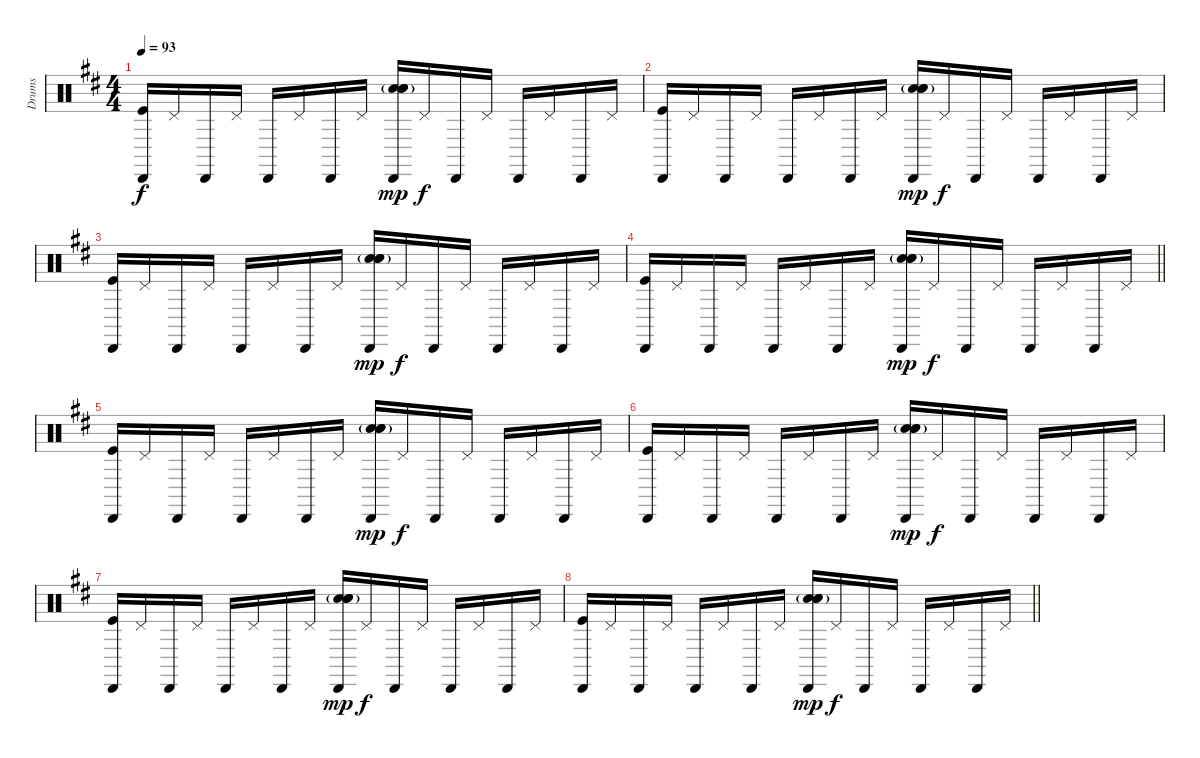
\track ("Drums" "Drums") {instrument percussion}
\staff {score}
\articulation defaults
\ts (4 4)
\tempo 93
\clef neutral
\ks d
("Cabasa (hit)" "Kick (hit)").16{dy f} "Pedal Hi-Hat (hit)".16 "Cabasa (hit)".16 "Pedal Hi-Hat (hit)".16 "Cabasa (hit)".16 "Pedal Hi-Hat (hit)".16 "Cabasa (hit)".16 "Pedal Hi-Hat (hit)".16 ("Cabasa (hit)" "Snare (hit) 2"{g} "Electric Snare (hit)"{g} "Electric Snare (hit)").16{dy mp} "Pedal Hi-Hat (hit)".16{dy f} "Cabasa (hit)".16 "Pedal Hi-Hat (hit)".16 "Cabasa (hit)".16 "Pedal Hi-Hat (hit)".16 "Cabasa (hit)".16 "Pedal Hi-Hat (hit)".16 |
("Cabasa (hit)" "Kick (hit)").16 "Pedal Hi-Hat (hit)".16 "Cabasa (hit)".16 "Pedal Hi-Hat (hit)".16 "Cabasa (hit)".16 "Pedal Hi-Hat (hit)".16 "Cabasa (hit)".16 "Pedal Hi-Hat (hit)".16 ("Cabasa (hit)" "Snare (hit) 2"{g} "Electric Snare (hit)"{g} "Electric Snare (hit)").16{dy mp} "Pedal Hi-Hat (hit)".16{dy f} "Cabasa (hit)".16 "Pedal Hi-Hat (hit)".16 "Cabasa (hit)".16 "Pedal Hi-Hat (hit)".16 "Cabasa (hit)".16 "Pedal Hi-Hat (hit)".16 |
("Cabasa (hit)" "Kick (hit)").16 "Pedal Hi-Hat (hit)".16 "Cabasa (hit)".16 "Pedal Hi-Hat (hit)".16 "Cabasa (hit)".16 "Pedal Hi-Hat (hit)".16 "Cabasa (hit)".16 "Pedal Hi-Hat (hit)".16 ("Cabasa (hit)" "Snare (hit) 2"{g} "Electric Snare (hit)"{g} "Electric Snare (hit)").16{dy mp} "Pedal Hi-Hat (hit)".16{dy f} "Cabasa (hit)".16 "Pedal Hi-Hat (hit)".16 "Cabasa (hit)".16 "Pedal Hi-Hat (hit)".16 "Cabasa (hit)".16 "Pedal Hi-Hat (hit)".16 |
\barLineRight lightlight
("Cabasa (hit)" "Kick (hit)").16 "Pedal Hi-Hat (hit)".16 "Cabasa (hit)".16 "Pedal Hi-Hat (hit)".16 "Cabasa (hit)".16 "Pedal Hi-Hat (hit)".16 "Cabasa (hit)".16 "Pedal Hi-Hat (hit)".16 ("Cabasa (hit)" "Snare (hit) 2"{g} "Electric Snare (hit)"{g} "Electric Snare (hit)").16{dy mp} "Pedal Hi-Hat (hit)".16{dy f} "Cabasa (hit)".16 "Pedal Hi-Hat (hit)".16 "Cabasa (hit)".16 "Pedal Hi-Hat (hit)".16 "Cabasa (hit)".16 "Pedal Hi-Hat (hit)".16 |
("Cabasa (hit)" "Kick (hit)").16 "Pedal Hi-Hat (hit)".16 "Cabasa (hit)".16 "Pedal Hi-Hat (hit)".16 "Cabasa (hit)".16 "Pedal Hi-Hat (hit)".16 "Cabasa (hit)".16 "Pedal Hi-Hat (hit)".16 ("Cabasa (hit)" "Snare (hit) 2"{g} "Electric Snare (hit)"{g} "Electric Snare (hit)").16{dy mp} "Pedal Hi-Hat (hit)".16{dy f} "Cabasa (hit)".16 "Pedal Hi-Hat (hit)".16 "Cabasa (hit)".16 "Pedal Hi-Hat (hit)".16 "Cabasa (hit)".16 "Pedal Hi-Hat (hit)".16 |
("Cabasa (hit)" "Kick (hit)").16 "Pedal Hi-Hat (hit)".16 "Cabasa (hit)".16 "Pedal Hi-Hat (hit)".16 "Cabasa (hit)".16 "Pedal Hi-Hat (hit)".16 "Cabasa (hit)".16 "Pedal Hi-Hat (hit)".16 ("Cabasa (hit)" "Snare (hit) 2"{g} "Electric Snare (hit)"{g} "Electric Snare (hit)").16{dy mp} "Pedal Hi-Hat (hit)".16{dy f} "Cabasa (hit)".16 "Pedal Hi-Hat (hit)".16 "Cabasa (hit)".16 "Pedal Hi-Hat (hit)".16 "Cabasa (hit)".16 "Pedal Hi-Hat (hit)".16 |
("Cabasa (hit)" "Kick (hit)").16 "Pedal Hi-Hat (hit)".16 "Cabasa (hit)".16 "Pedal Hi-Hat (hit)".16 "Cabasa (hit)".16 "Pedal Hi-Hat (hit)".16 "Cabasa (hit)".16 "Pedal Hi-Hat (hit)".16 ("Cabasa (hit)" "Snare (hit) 2"{g} "Electric Snare (hit)"{g} "Electric Snare (hit)").16{dy mp} "Pedal Hi-Hat (hit)".16{dy f} "Cabasa (hit)".16 "Pedal Hi-Hat (hit)".16 "Cabasa (hit)".16 "Pedal Hi-Hat (hit)".16 "Cabasa (hit)".16 "Pedal Hi-Hat (hit)".16 |
\barLineRight lightlight
("Cabasa (hit)" "Kick (hit)").16 "Pedal Hi-Hat (hit)".16 "Cabasa (hit)".16 "Pedal Hi-Hat (hit)".16 "Cabasa (hit)".16 "Pedal Hi-Hat (hit)".16 "Cabasa (hit)".16 "Pedal Hi-Hat (hit)".16 ("Cabasa (hit)" "Snare (hit) 2"{g} "Electric Snare (hit)"{g} "Electric Snare (hit)").16{dy mp} "Pedal Hi-Hat (hit)".16{dy f} "Cabasa (hit)".16 "Pedal Hi-Hat (hit)".16 "Cabasa (hit)".16 "Pedal Hi-Hat (hit)".16 "Cabasa (hit)".16 "Pedal Hi-Hat (hit)".16
